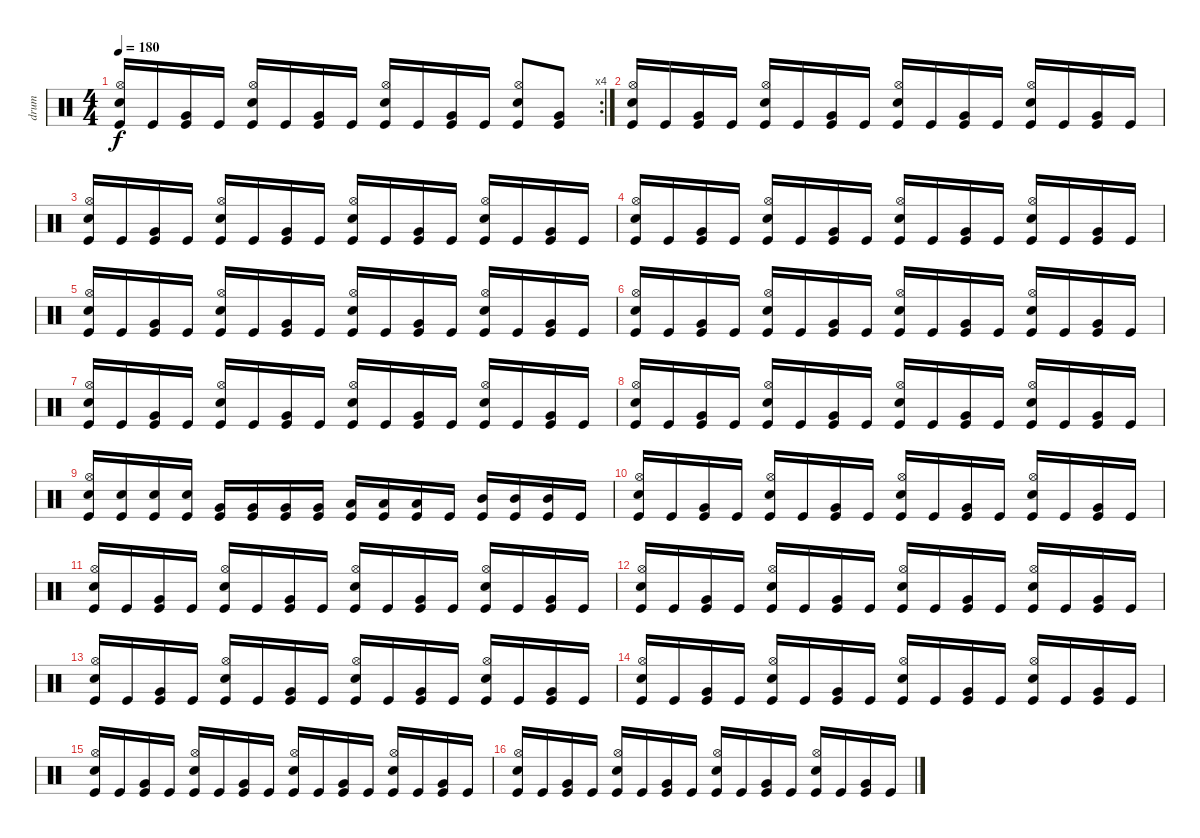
\track ("drum" "drum") {instrument percussion}
\staff {score}
\articulation defaults
\rc 4
\ts (4 4)
\tempo 180
\clef neutral
\ks c
("Kick (hit)" "Hi-Hat (open)" "Snare (hit) 2").16{dy f} "Kick (hit)".16 ("Kick (hit)" "Very Low Tom (hit)").16 "Kick (hit)".16 ("Kick (hit)" "Hi-Hat (open)" "Snare (hit) 2").16 "Kick (hit)".16 ("Kick (hit)" "Very Low Tom (hit)").16 "Kick (hit)".16 ("Kick (hit)" "Hi-Hat (open)" "Snare (hit) 2").16 "Kick (hit)".16 ("Kick (hit)" "Very Low Tom (hit)").16 "Kick (hit)".16 ("Kick (hit)" "Hi-Hat (open)" "Snare (hit) 2").8 ("Kick (hit)" "Very Low Tom (hit)").8 |
("Kick (hit)" "Snare (hit) 2" "Hi-Hat (open)").16 "Kick (hit)".16 ("Kick (hit)" "Very Low Tom (hit)").16 "Kick (hit)".16 ("Kick (hit)" "Snare (hit) 2" "Hi-Hat (open)").16 "Kick (hit)".16 ("Kick (hit)" "Very Low Tom (hit)").16 "Kick (hit)".16 ("Kick (hit)" "Snare (hit) 2" "Hi-Hat (open)").16 "Kick (hit)".16 ("Kick (hit)" "Very Low Tom (hit)").16 "Kick (hit)".16 ("Kick (hit)" "Snare (hit) 2" "Hi-Hat (open)").16 "Kick (hit)".16 ("Kick (hit)" "Very Low Tom (hit)").16 "Kick (hit)".16 |
("Kick (hit)" "Snare (hit) 2" "Hi-Hat (open)").16 "Kick (hit)".16 ("Kick (hit)" "Very Low Tom (hit)").16 "Kick (hit)".16 ("Kick (hit)" "Snare (hit) 2" "Hi-Hat (open)").16 "Kick (hit)".16 ("Kick (hit)" "Very Low Tom (hit)").16 "Kick (hit)".16 ("Kick (hit)" "Snare (hit) 2" "Hi-Hat (open)").16 "Kick (hit)".16 ("Kick (hit)" "Very Low Tom (hit)").16 "Kick (hit)".16 ("Kick (hit)" "Snare (hit) 2" "Hi-Hat (open)").16 "Kick (hit)".16 ("Kick (hit)" "Very Low Tom (hit)").16 "Kick (hit)".16 |
("Kick (hit)" "Snare (hit) 2" "Hi-Hat (open)").16 "Kick (hit)".16 ("Kick (hit)" "Very Low Tom (hit)").16 "Kick (hit)".16 ("Kick (hit)" "Snare (hit) 2" "Hi-Hat (open)").16 "Kick (hit)".16 ("Kick (hit)" "Very Low Tom (hit)").16 "Kick (hit)".16 ("Kick (hit)" "Snare (hit) 2" "Hi-Hat (open)").16 "Kick (hit)".16 ("Kick (hit)" "Very Low Tom (hit)").16 "Kick (hit)".16 ("Kick (hit)" "Snare (hit) 2" "Hi-Hat (open)").16 "Kick (hit)".16 ("Kick (hit)" "Very Low Tom (hit)").16 "Kick (hit)".16 |
("Kick (hit)" "Snare (hit) 2" "Hi-Hat (open)").16 "Kick (hit)".16 ("Kick (hit)" "Very Low Tom (hit)").16 "Kick (hit)".16 ("Kick (hit)" "Snare (hit) 2" "Hi-Hat (open)").16 "Kick (hit)".16 ("Kick (hit)" "Very Low Tom (hit)").16 "Kick (hit)".16 ("Kick (hit)" "Snare (hit) 2" "Hi-Hat (open)").16 "Kick (hit)".16 ("Kick (hit)" "Very Low Tom (hit)").16 "Kick (hit)".16 ("Kick (hit)" "Snare (hit) 2" "Hi-Hat (open)").16 "Kick (hit)".16 ("Kick (hit)" "Very Low Tom (hit)").16 "Kick (hit)".16 |
("Kick (hit)" "Snare (hit) 2" "Hi-Hat (open)").16 "Kick (hit)".16 ("Kick (hit)" "Very Low Tom (hit)").16 "Kick (hit)".16 ("Kick (hit)" "Snare (hit) 2" "Hi-Hat (open)").16 "Kick (hit)".16 ("Kick (hit)" "Very Low Tom (hit)").16 "Kick (hit)".16 ("Kick (hit)" "Snare (hit) 2" "Hi-Hat (open)").16 "Kick (hit)".16 ("Kick (hit)" "Very Low Tom (hit)").16 "Kick (hit)".16 ("Kick (hit)" "Snare (hit) 2" "Hi-Hat (open)").16 "Kick (hit)".16 ("Kick (hit)" "Very Low Tom (hit)").16 "Kick (hit)".16 |
("Kick (hit)" "Snare (hit) 2" "Hi-Hat (open)").16 "Kick (hit)".16 ("Kick (hit)" "Very Low Tom (hit)").16 "Kick (hit)".16 ("Kick (hit)" "Snare (hit) 2" "Hi-Hat (open)").16 "Kick (hit)".16 ("Kick (hit)" "Very Low Tom (hit)").16 "Kick (hit)".16 ("Kick (hit)" "Snare (hit) 2" "Hi-Hat (open)").16 "Kick (hit)".16 ("Kick (hit)" "Very Low Tom (hit)").16 "Kick (hit)".16 ("Kick (hit)" "Snare (hit) 2" "Hi-Hat (open)").16 "Kick (hit)".16 ("Kick (hit)" "Very Low Tom (hit)").16 "Kick (hit)".16 |
("Kick (hit)" "Snare (hit) 2" "Hi-Hat (open)").16 "Kick (hit)".16 ("Kick (hit)" "Very Low Tom (hit)").16 "Kick (hit)".16 ("Kick (hit)" "Snare (hit) 2" "Hi-Hat (open)").16 "Kick (hit)".16 ("Kick (hit)" "Very Low Tom (hit)").16 "Kick (hit)".16 ("Kick (hit)" "Snare (hit) 2" "Hi-Hat (open)").16 "Kick (hit)".16 ("Kick (hit)" "Very Low Tom (hit)").16 "Kick (hit)".16 ("Kick (hit)" "Snare (hit) 2" "Hi-Hat (open)").16 "Kick (hit)".16 ("Kick (hit)" "Very Low Tom (hit)").16 "Kick (hit)".16 |
("Kick (hit)" "Snare (hit) 2" "Hi-Hat (open)").16 ("Kick (hit)" "Snare (hit) 2").16 ("Kick (hit)" "Snare (hit) 2").16 ("Kick (hit)" "Snare (hit) 2").16 ("Kick (hit)" "Very Low Tom (hit)").16 ("Kick (hit)" "Very Low Tom (hit)").16 ("Kick (hit)" "Very Low Tom (hit)").16 ("Kick (hit)" "Very Low Tom (hit)").16 ("Kick (hit)" "Low Tom (hit)").16 ("Kick (hit)" "Low Tom (hit)").16 ("Kick (hit)" "Low Tom (hit)").16 "Kick (hit)".16 ("Kick (hit)" "Mid Tom (hit)").16 ("Kick (hit)" "Mid Tom (hit)").16 ("Kick (hit)" "Mid Tom (hit)").16 "Kick (hit)".16 |
("Kick (hit)" "Snare (hit) 2" "Hi-Hat (open)").16 "Kick (hit)".16 ("Kick (hit)" "Very Low Tom (hit)").16 "Kick (hit)".16 ("Kick (hit)" "Snare (hit) 2" "Hi-Hat (open)").16 "Kick (hit)".16 ("Kick (hit)" "Very Low Tom (hit)").16 "Kick (hit)".16 ("Kick (hit)" "Snare (hit) 2" "Hi-Hat (open)").16 "Kick (hit)".16 ("Kick (hit)" "Very Low Tom (hit)").16 "Kick (hit)".16 ("Kick (hit)" "Snare (hit) 2" "Hi-Hat (open)").16 "Kick (hit)".16 ("Kick (hit)" "Very Low Tom (hit)").16 "Kick (hit)".16 |
("Kick (hit)" "Snare (hit) 2" "Hi-Hat (open)").16 "Kick (hit)".16 ("Kick (hit)" "Very Low Tom (hit)").16 "Kick (hit)".16 ("Kick (hit)" "Snare (hit) 2" "Hi-Hat (open)").16 "Kick (hit)".16 ("Kick (hit)" "Very Low Tom (hit)").16 "Kick (hit)".16 ("Kick (hit)" "Snare (hit) 2" "Hi-Hat (open)").16 "Kick (hit)".16 ("Kick (hit)" "Very Low Tom (hit)").16 "Kick (hit)".16 ("Kick (hit)" "Snare (hit) 2" "Hi-Hat (open)").16 "Kick (hit)".16 ("Kick (hit)" "Very Low Tom (hit)").16 "Kick (hit)".16 |
("Kick (hit)" "Snare (hit) 2" "Hi-Hat (open)").16 "Kick (hit)".16 ("Kick (hit)" "Very Low Tom (hit)").16 "Kick (hit)".16 ("Kick (hit)" "Snare (hit) 2" "Hi-Hat (open)").16 "Kick (hit)".16 ("Kick (hit)" "Very Low Tom (hit)").16 "Kick (hit)".16 ("Kick (hit)" "Snare (hit) 2" "Hi-Hat (open)").16 "Kick (hit)".16 ("Kick (hit)" "Very Low Tom (hit)").16 "Kick (hit)".16 ("Kick (hit)" "Snare (hit) 2" "Hi-Hat (open)").16 "Kick (hit)".16 ("Kick (hit)" "Very Low Tom (hit)").16 "Kick (hit)".16 |
("Kick (hit)" "Snare (hit) 2" "Hi-Hat (open)").16 "Kick (hit)".16 ("Kick (hit)" "Very Low Tom (hit)").16 "Kick (hit)".16 ("Kick (hit)" "Snare (hit) 2" "Hi-Hat (open)").16 "Kick (hit)".16 ("Kick (hit)" "Very Low Tom (hit)").16 "Kick (hit)".16 ("Kick (hit)" "Snare (hit) 2" "Hi-Hat (open)").16 "Kick (hit)".16 ("Kick (hit)" "Very Low Tom (hit)").16 "Kick (hit)".16 ("Kick (hit)" "Snare (hit) 2" "Hi-Hat (open)").16 "Kick (hit)".16 ("Kick (hit)" "Very Low Tom (hit)").16 "Kick (hit)".16 |
("Kick (hit)" "Snare (hit) 2" "Hi-Hat (open)").16 "Kick (hit)".16 ("Kick (hit)" "Very Low Tom (hit)").16 "Kick (hit)".16 ("Kick (hit)" "Snare (hit) 2" "Hi-Hat (open)").16 "Kick (hit)".16 ("Kick (hit)" "Very Low Tom (hit)").16 "Kick (hit)".16 ("Kick (hit)" "Snare (hit) 2" "Hi-Hat (open)").16 "Kick (hit)".16 ("Kick (hit)" "Very Low Tom (hit)").16 "Kick (hit)".16 ("Kick (hit)" "Snare (hit) 2" "Hi-Hat (open)").16 "Kick (hit)".16 ("Kick (hit)" "Very Low Tom (hit)").16 "Kick (hit)".16 |
("Kick (hit)" "Snare (hit) 2" "Hi-Hat (open)").16 "Kick (hit)".16 ("Kick (hit)" "Very Low Tom (hit)").16 "Kick (hit)".16 ("Kick (hit)" "Snare (hit) 2" "Hi-Hat (open)").16 "Kick (hit)".16 ("Kick (hit)" "Very Low Tom (hit)").16 "Kick (hit)".16 ("Kick (hit)" "Snare (hit) 2" "Hi-Hat (open)").16 "Kick (hit)".16 ("Kick (hit)" "Very Low Tom (hit)").16 "Kick (hit)".16 ("Kick (hit)" "Snare (hit) 2" "Hi-Hat (open)").16 "Kick (hit)".16 ("Kick (hit)" "Very Low Tom (hit)").16 "Kick (hit)".16 |
("Kick (hit)" "Snare (hit) 2" "Hi-Hat (open)").16 "Kick (hit)".16 ("Kick (hit)" "Very Low Tom (hit)").16 "Kick (hit)".16 ("Kick (hit)" "Snare (hit) 2" "Hi-Hat (open)").16 "Kick (hit)".16 ("Kick (hit)" "Very Low Tom (hit)").16 "Kick (hit)".16 ("Kick (hit)" "Snare (hit) 2" "Hi-Hat (open)").16 "Kick (hit)".16 ("Kick (hit)" "Very Low Tom (hit)").16 "Kick (hit)".16 ("Kick (hit)" "Snare (hit) 2" "Hi-Hat (open)").16 "Kick (hit)".16 ("Kick (hit)" "Very Low Tom (hit)").16 "Kick (hit)".16
